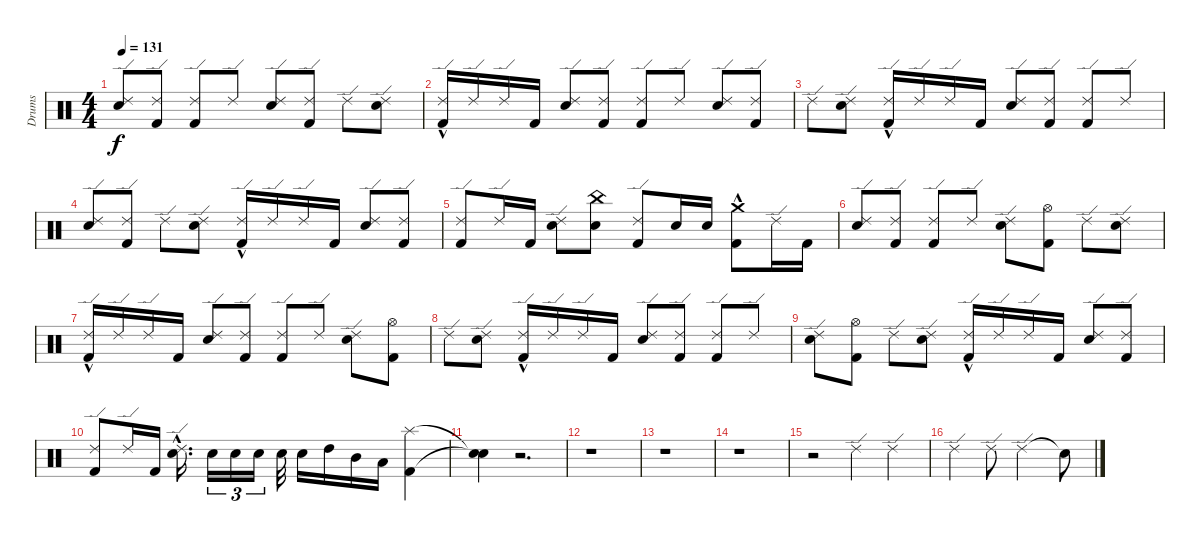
\track ("Drums" "Drums") {instrument percussion}
\staff {score}
\articulation defaults
\ts (4 4)
\tempo 131
\clef neutral
\ks c
("Electric Snare (hit)" "Ride (edge) 2").8{dy f} ("Kick (hit) 2" "Ride (edge) 2").8 ("Kick (hit) 2" "Ride (edge) 2").8 "Ride (edge) 2".8 ("Electric Snare (hit)" "Ride (edge) 2").8 ("Kick (hit) 2" "Ride (edge) 2").8 "Ride (edge) 2".8 ("Electric Snare (hit)" "Ride (edge) 2").8 |
("Ride (edge) 2" "Kick (hit) 2"{hac}).16 "Ride (edge) 2".16 "Ride (edge) 2".16 "Kick (hit) 2".16 ("Electric Snare (hit)" "Ride (edge) 2").8 ("Kick (hit) 2" "Ride (edge) 2").8 ("Kick (hit) 2" "Ride (edge) 2").8 "Ride (edge) 2".8 ("Electric Snare (hit)" "Ride (edge) 2").8 ("Kick (hit) 2" "Ride (edge) 2").8 |
"Ride (edge) 2".8 ("Electric Snare (hit)" "Ride (edge) 2").8 ("Ride (edge) 2" "Kick (hit) 2"{hac}).16 "Ride (edge) 2".16 "Ride (edge) 2".16 "Kick (hit) 2".16 ("Electric Snare (hit)" "Ride (edge) 2").8 ("Kick (hit) 2" "Ride (edge) 2").8 ("Kick (hit) 2" "Ride (edge) 2").8 "Ride (edge) 2".8 |
("Electric Snare (hit)" "Ride (edge) 2").8 ("Kick (hit) 2" "Ride (edge) 2").8 "Ride (edge) 2".8 ("Electric Snare (hit)" "Ride (edge) 2").8 ("Ride (edge) 2" "Kick (hit) 2"{hac}).16 "Ride (edge) 2".16 "Ride (edge) 2".16 "Kick (hit) 2".16 ("Electric Snare (hit)" "Ride (edge) 2").8 ("Kick (hit) 2" "Ride (edge) 2").8 |
("Kick (hit) 2" "Ride (edge) 2").8 "Ride (edge) 2".16 "Kick (hit) 2".16 ("Electric Snare (hit)" "Ride (edge) 2").8 ("China (hit)" "Electric Snare (hit)").8 ("Ride (edge) 2" "Kick (hit) 2").8 "Electric Snare (hit)".16 "Electric Snare (hit)".16 ("Crash medium (hit)" "Kick (hit) 2"{hac}).8 "Ride (edge) 2".16 "Kick (hit) 2".16 |
("Electric Snare (hit)" "Ride (edge) 2").8 ("Kick (hit) 2" "Ride (edge) 2").8 ("Kick (hit) 2" "Ride (edge) 2").8 "Ride (edge) 2".8 ("Electric Snare (hit)" "Ride (edge) 2").8 ("Hi-Hat (open)" "Kick (hit) 2").8 "Ride (edge) 2".8 ("Electric Snare (hit)" "Ride (edge) 2").8 |
("Ride (edge) 2" "Kick (hit) 2"{hac}).16 "Ride (edge) 2".16 "Ride (edge) 2".16 "Kick (hit) 2".16 ("Electric Snare (hit)" "Ride (edge) 2").8 ("Kick (hit) 2" "Ride (edge) 2").8 ("Kick (hit) 2" "Ride (edge) 2").8 "Ride (edge) 2".8 ("Electric Snare (hit)" "Ride (edge) 2").8 ("Hi-Hat (open)" "Kick (hit) 2").8 |
"Ride (edge) 2".8 ("Electric Snare (hit)" "Ride (edge) 2").8 ("Ride (edge) 2" "Kick (hit) 2"{hac}).16 "Ride (edge) 2".16 "Ride (edge) 2".16 "Kick (hit) 2".16 ("Electric Snare (hit)" "Ride (edge) 2").8 ("Kick (hit) 2" "Ride (edge) 2").8 ("Kick (hit) 2" "Ride (edge) 2").8 "Ride (edge) 2".8 |
("Electric Snare (hit)" "Ride (edge) 2").8 ("Hi-Hat (open)" "Kick (hit) 2").8 "Ride (edge) 2".8 ("Electric Snare (hit)" "Ride (edge) 2").8 ("Ride (edge) 2" "Kick (hit) 2"{hac}).16 "Ride (edge) 2".16 "Ride (edge) 2".16 "Kick (hit) 2".16 ("Electric Snare (hit)" "Ride (edge) 2").8 ("Kick (hit) 2" "Ride (edge) 2").8 |
("Kick (hit) 2" "Ride (edge) 2").8 "Ride (edge) 2".16 "Kick (hit) 2".16 ("Electric Snare (hit)"{hac} "Ride (edge) 2").16{d} "Electric Snare (hit)".16{tu (3 2) volume 6} "Electric Snare (hit)".16{tu (3 2) volume 10} "Electric Snare (hit)".16{tu (3 2) volume 13} "Electric Snare (hit)".32{volume 16} "Electric Snare (hit)".16 "High Tom (hit)".16 "Mid Tom (hit)".16 "Low Tom (hit)".16 ("Splash (hit)" "Kick (hit) 2").4 |
("Snare (hit)"{t} "Snare (hit)"{t}).4 r.2{d} |
r.1 |
r.1 |
r.1 |
r.2 "Ride (edge) 2".4 "Ride (edge) 2".4 |
"Ride (edge) 2".4 "Ride (edge) 2".8 "Ride (edge) 2".2 "Snare (hit)"{t}.8
